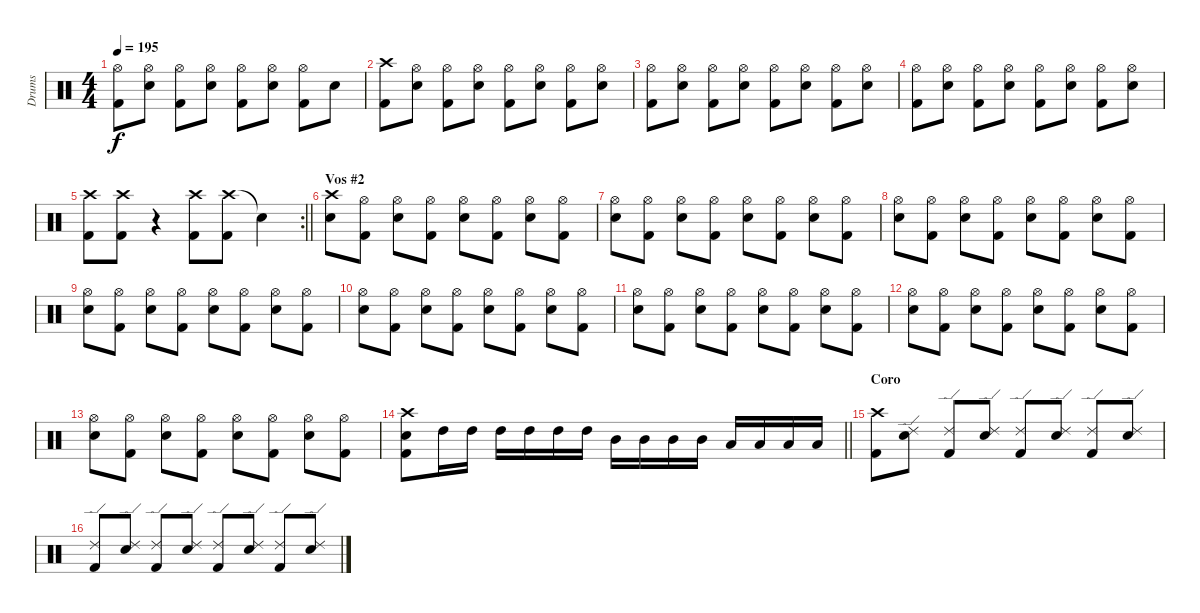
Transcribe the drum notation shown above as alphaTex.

\track ("Drums" "Drums") {instrument percussion}
\staff {score}
\articulation defaults
\ts (4 4)
\tempo 195
\clef neutral
\ks c
("Hi-Hat (open)" "Kick (hit) 2").8{dy f} ("Hi-Hat (open)" "Snare (hit) 2").8 ("Hi-Hat (open)" "Kick (hit) 2").8 ("Hi-Hat (open)" "Snare (hit) 2").8 ("Hi-Hat (open)" "Kick (hit) 2").8 ("Hi-Hat (open)" "Snare (hit) 2").8 ("Hi-Hat (open)" "Kick (hit) 2").8 "Snare (hit) 2".8 |
("Crash high (hit)" "Kick (hit) 2").8 ("Hi-Hat (open)" "Snare (hit) 2").8 ("Hi-Hat (open)" "Kick (hit) 2").8 ("Hi-Hat (open)" "Snare (hit) 2").8 ("Hi-Hat (open)" "Kick (hit) 2").8 ("Hi-Hat (open)" "Snare (hit) 2").8 ("Hi-Hat (open)" "Kick (hit) 2").8 ("Hi-Hat (open)" "Snare (hit) 2").8 |
("Hi-Hat (open)" "Kick (hit) 2").8 ("Hi-Hat (open)" "Snare (hit) 2").8 ("Hi-Hat (open)" "Kick (hit) 2").8 ("Hi-Hat (open)" "Snare (hit) 2").8 ("Hi-Hat (open)" "Kick (hit) 2").8 ("Hi-Hat (open)" "Snare (hit) 2").8 ("Hi-Hat (open)" "Kick (hit) 2").8 ("Hi-Hat (open)" "Snare (hit) 2").8 |
("Hi-Hat (open)" "Kick (hit) 2").8 ("Hi-Hat (open)" "Snare (hit) 2").8 ("Hi-Hat (open)" "Kick (hit) 2").8 ("Hi-Hat (open)" "Snare (hit) 2").8 ("Hi-Hat (open)" "Kick (hit) 2").8 ("Hi-Hat (open)" "Snare (hit) 2").8 ("Hi-Hat (open)" "Kick (hit) 2").8 ("Hi-Hat (open)" "Snare (hit) 2").8 |
\rc 2
\barLineRight lightlight
("Crash high (hit)" "Kick (hit) 2").8 ("Crash high (hit)" "Kick (hit) 2").8 r.4 ("Crash high (hit)" "Kick (hit) 2").8 ("Crash high (hit)" "Kick (hit) 2").8 "Snare (hit)"{t}.4 |
\section ("" "Vos #2")
("Crash high (hit)" "Snare (hit) 2").8 ("Hi-Hat (open)" "Kick (hit) 2").8 ("Hi-Hat (open)" "Snare (hit) 2").8 ("Hi-Hat (open)" "Kick (hit) 2").8 ("Hi-Hat (open)" "Snare (hit) 2").8 ("Hi-Hat (open)" "Kick (hit) 2").8 ("Hi-Hat (open)" "Snare (hit) 2").8 ("Hi-Hat (open)" "Kick (hit) 2").8 |
("Hi-Hat (open)" "Snare (hit) 2").8 ("Hi-Hat (open)" "Kick (hit) 2").8 ("Hi-Hat (open)" "Snare (hit) 2").8 ("Hi-Hat (open)" "Kick (hit) 2").8 ("Hi-Hat (open)" "Snare (hit) 2").8 ("Hi-Hat (open)" "Kick (hit) 2").8 ("Hi-Hat (open)" "Snare (hit) 2").8 ("Hi-Hat (open)" "Kick (hit) 2").8 |
("Hi-Hat (open)" "Snare (hit) 2").8 ("Hi-Hat (open)" "Kick (hit) 2").8 ("Hi-Hat (open)" "Snare (hit) 2").8 ("Hi-Hat (open)" "Kick (hit) 2").8 ("Hi-Hat (open)" "Snare (hit) 2").8 ("Hi-Hat (open)" "Kick (hit) 2").8 ("Hi-Hat (open)" "Snare (hit) 2").8 ("Hi-Hat (open)" "Kick (hit) 2").8 |
("Hi-Hat (open)" "Snare (hit) 2").8 ("Hi-Hat (open)" "Kick (hit) 2").8 ("Hi-Hat (open)" "Snare (hit) 2").8 ("Hi-Hat (open)" "Kick (hit) 2").8 ("Hi-Hat (open)" "Snare (hit) 2").8 ("Hi-Hat (open)" "Kick (hit) 2").8 ("Hi-Hat (open)" "Snare (hit) 2").8 ("Hi-Hat (open)" "Kick (hit) 2").8 |
("Hi-Hat (open)" "Snare (hit) 2").8 ("Hi-Hat (open)" "Kick (hit) 2").8 ("Hi-Hat (open)" "Snare (hit) 2").8 ("Hi-Hat (open)" "Kick (hit) 2").8 ("Hi-Hat (open)" "Snare (hit) 2").8 ("Hi-Hat (open)" "Kick (hit) 2").8 ("Hi-Hat (open)" "Snare (hit) 2").8 ("Hi-Hat (open)" "Kick (hit) 2").8 |
("Hi-Hat (open)" "Snare (hit) 2").8 ("Hi-Hat (open)" "Kick (hit) 2").8 ("Hi-Hat (open)" "Snare (hit) 2").8 ("Hi-Hat (open)" "Kick (hit) 2").8 ("Hi-Hat (open)" "Snare (hit) 2").8 ("Hi-Hat (open)" "Kick (hit) 2").8 ("Hi-Hat (open)" "Snare (hit) 2").8 ("Hi-Hat (open)" "Kick (hit) 2").8 |
("Hi-Hat (open)" "Snare (hit) 2").8 ("Hi-Hat (open)" "Kick (hit) 2").8 ("Hi-Hat (open)" "Snare (hit) 2").8 ("Hi-Hat (open)" "Kick (hit) 2").8 ("Hi-Hat (open)" "Snare (hit) 2").8 ("Hi-Hat (open)" "Kick (hit) 2").8 ("Hi-Hat (open)" "Snare (hit) 2").8 ("Hi-Hat (open)" "Kick (hit) 2").8 |
("Hi-Hat (open)" "Snare (hit) 2").8 ("Hi-Hat (open)" "Kick (hit) 2").8 ("Hi-Hat (open)" "Snare (hit) 2").8 ("Hi-Hat (open)" "Kick (hit) 2").8 ("Hi-Hat (open)" "Snare (hit) 2").8 ("Hi-Hat (open)" "Kick (hit) 2").8 ("Hi-Hat (open)" "Snare (hit) 2").8 ("Hi-Hat (open)" "Kick (hit) 2").8 |
\barLineRight lightlight
("Crash high (hit)" "Snare (hit) 2" "Kick (hit) 2").8 "High Tom (hit)".16 "High Tom (hit)".16 "High Tom (hit)".16 "High Tom (hit)".16 "High Tom (hit)".16 "High Tom (hit)".16 "Mid Tom (hit)".16 "Mid Tom (hit)".16 "Mid Tom (hit)".16 "Mid Tom (hit)".16 "Low Tom (hit)".16 "Low Tom (hit)".16 "Low Tom (hit)".16 "Low Tom (hit)".16 |
\section ("" "Coro")
("Crash high (hit)" "Kick (hit) 2").8 ("Ride (edge) 2" "Snare (hit) 2").8 ("Ride (edge) 2" "Kick (hit) 2").8 ("Ride (edge) 2" "Snare (hit) 2").8 ("Ride (edge) 2" "Kick (hit) 2").8 ("Ride (edge) 2" "Snare (hit) 2").8 ("Ride (edge) 2" "Kick (hit) 2").8 ("Ride (edge) 2" "Snare (hit) 2").8 |
("Ride (edge) 2" "Kick (hit) 2").8 ("Ride (edge) 2" "Snare (hit) 2").8 ("Ride (edge) 2" "Kick (hit) 2").8 ("Ride (edge) 2" "Snare (hit) 2").8 ("Ride (edge) 2" "Kick (hit) 2").8 ("Ride (edge) 2" "Snare (hit) 2").8 ("Ride (edge) 2" "Kick (hit) 2").8 ("Ride (edge) 2" "Snare (hit) 2").8
